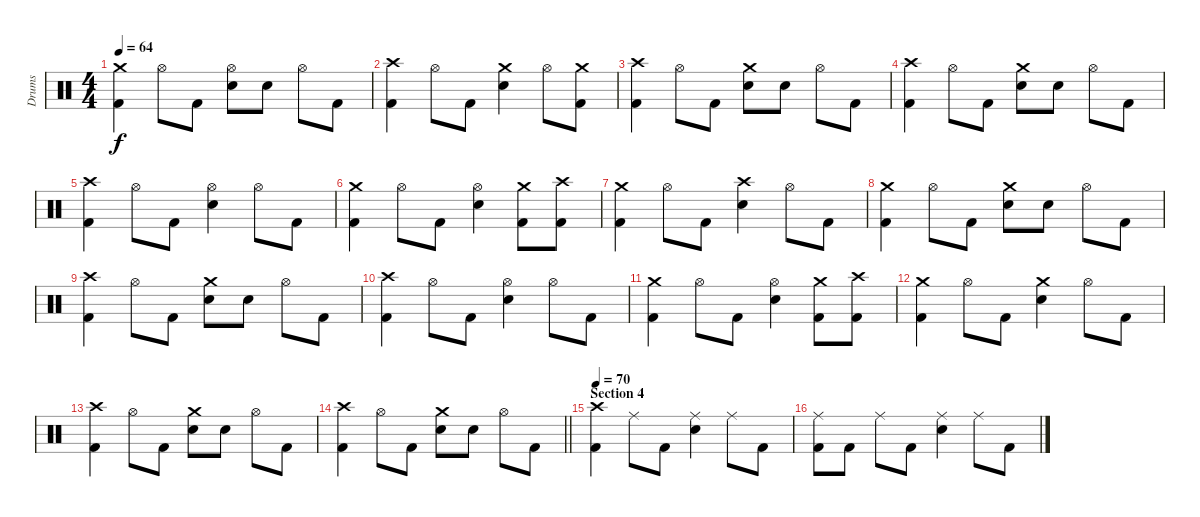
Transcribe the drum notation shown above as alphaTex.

\track ("Drums" "Drums") {instrument percussion}
\staff {score}
\articulation defaults
\ts (4 4)
\tempo 64
\clef neutral
\ks c
("Crash medium (hit)" "Kick (hit) 2").4{dy f} "Hi-Hat (open)".8 "Kick (hit) 2".8 ("Hi-Hat (open)" "Electric Snare (hit)").8 "Electric Snare (hit)".8 "Hi-Hat (open)".8 "Kick (hit) 2".8 |
("Crash high (hit)" "Kick (hit) 2").4 "Hi-Hat (open)".8 "Kick (hit) 2".8 ("Crash medium (hit)" "Electric Snare (hit)").4 "Hi-Hat (open)".8 ("Crash medium (hit)" "Kick (hit) 2").8 |
("Crash high (hit)" "Kick (hit) 2").4 "Hi-Hat (open)".8 "Kick (hit) 2".8 ("Crash medium (hit)" "Electric Snare (hit)").8 "Electric Snare (hit)".8 "Hi-Hat (open)".8 "Kick (hit) 2".8 |
("Crash high (hit)" "Kick (hit) 2").4 "Hi-Hat (open)".8 "Kick (hit) 2".8 ("Crash medium (hit)" "Electric Snare (hit)").8 "Electric Snare (hit)".8 "Hi-Hat (open)".8 "Kick (hit) 2".8 |
("Crash high (hit)" "Kick (hit) 2").4 "Hi-Hat (open)".8 "Kick (hit) 2".8 ("Hi-Hat (open)" "Electric Snare (hit)").4 "Hi-Hat (open)".8 "Kick (hit) 2".8 |
("Crash medium (hit)" "Kick (hit) 2").4 "Hi-Hat (open)".8 "Kick (hit) 2".8 ("Hi-Hat (open)" "Electric Snare (hit)").4 ("Crash medium (hit)" "Kick (hit) 2").8 ("Crash high (hit)" "Kick (hit) 2").8 |
("Crash medium (hit)" "Kick (hit) 2").4 "Hi-Hat (open)".8 "Kick (hit) 2".8 ("Crash high (hit)" "Electric Snare (hit)").4 "Hi-Hat (open)".8 "Kick (hit) 2".8 |
("Crash medium (hit)" "Kick (hit) 2").4 "Hi-Hat (open)".8 "Kick (hit) 2".8 ("Crash medium (hit)" "Electric Snare (hit)").8 "Electric Snare (hit)".8 "Hi-Hat (open)".8 "Kick (hit) 2".8 |
("Crash high (hit)" "Kick (hit) 2").4 "Hi-Hat (open)".8 "Kick (hit) 2".8 ("Crash medium (hit)" "Electric Snare (hit)").8 "Electric Snare (hit)".8 "Hi-Hat (open)".8 "Kick (hit) 2".8 |
("Crash high (hit)" "Kick (hit) 2").4 "Hi-Hat (open)".8 "Kick (hit) 2".8 ("Hi-Hat (open)" "Electric Snare (hit)").4 "Hi-Hat (open)".8 "Kick (hit) 2".8 |
("Crash medium (hit)" "Kick (hit) 2").4 "Hi-Hat (open)".8 "Kick (hit) 2".8 ("Hi-Hat (open)" "Electric Snare (hit)").4 ("Crash medium (hit)" "Kick (hit) 2").8 ("Crash high (hit)" "Kick (hit) 2").8 |
("Crash medium (hit)" "Kick (hit) 2").4 "Hi-Hat (open)".8 "Kick (hit) 2".8 ("Crash medium (hit)" "Electric Snare (hit)").4 "Hi-Hat (open)".8 "Kick (hit) 2".8 |
("Crash high (hit)" "Kick (hit) 2").4 "Hi-Hat (open)".8 "Kick (hit) 2".8 ("Crash medium (hit)" "Electric Snare (hit)").8 "Electric Snare (hit)".8 "Hi-Hat (open)".8 "Kick (hit) 2".8 |
\barLineRight lightlight
("Crash high (hit)" "Kick (hit) 2").4 "Hi-Hat (open)".8 "Kick (hit) 2".8 ("Crash medium (hit)" "Electric Snare (hit)").8 "Electric Snare (hit)".8 "Hi-Hat (open)".8 "Kick (hit) 2".8 |
\section ("" "Section 4")
\tempo 70
("Crash high (hit)" "Kick (hit) 2").4 "Ride (middle)".8 "Kick (hit) 2".8 ("Ride (middle)" "Electric Snare (hit)").4 "Ride (middle)".8 "Kick (hit) 2".8 |
("Ride (middle)" "Kick (hit) 2").8 "Kick (hit) 2".8 "Ride (middle)".8 "Kick (hit) 2".8 ("Ride (middle)" "Electric Snare (hit)").4 "Ride (middle)".8 "Kick (hit) 2".8
